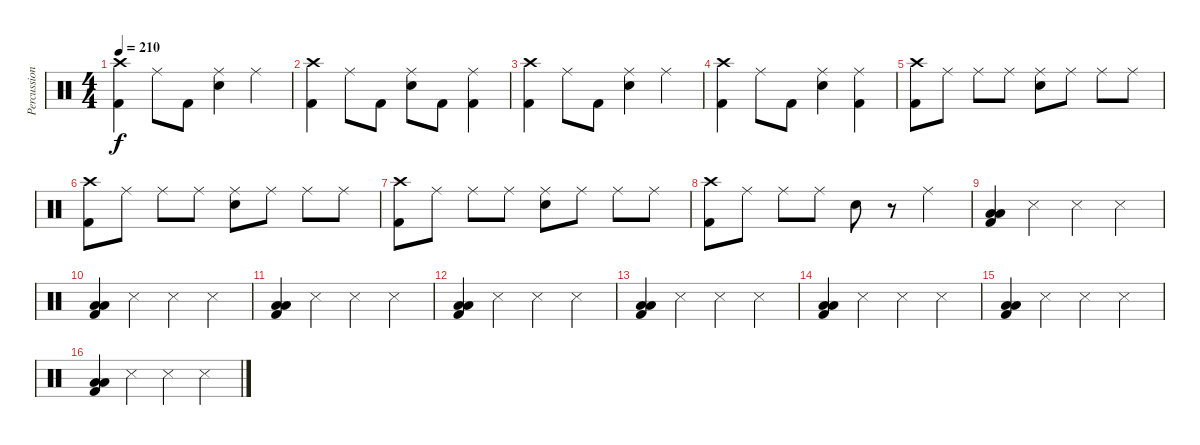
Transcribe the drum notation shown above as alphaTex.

\track ("Percussion" "Percussion") {instrument percussion}
\staff {score}
\articulation defaults
\ts (4 4)
\tempo 210
\clef neutral
\ks c
("Crash high (hit)" "Kick (hit) 2").4{dy f} "Ride (middle)".8 "Kick (hit) 2".8 ("Ride (middle)" "Electric Snare (hit)").4 "Ride (middle)".4 |
("Crash high (hit)" "Kick (hit) 2").4 "Ride (middle)".8 "Kick (hit) 2".8 ("Ride (middle)" "Electric Snare (hit)").8 "Kick (hit) 2".8 ("Ride (middle)" "Kick (hit) 2").4 |
("Crash high (hit)" "Kick (hit) 2").4 "Ride (middle)".8 "Kick (hit) 2".8 ("Ride (middle)" "Electric Snare (hit)").4 "Ride (middle)".4 |
("Crash high (hit)" "Kick (hit) 2").4 "Ride (middle)".8 "Kick (hit) 2".8 ("Ride (middle)" "Electric Snare (hit)").4 ("Ride (middle)" "Kick (hit) 2").4 |
("Crash high (hit)" "Kick (hit) 2").8 "Ride (middle)".8 "Ride (middle)".8 "Ride (middle)".8 ("Ride (middle)" "Electric Snare (hit)").8 "Ride (middle)".8 "Ride (middle)".8 "Ride (middle)".8 |
("Crash high (hit)" "Kick (hit) 2").8 "Ride (middle)".8 "Ride (middle)".8 "Ride (middle)".8 ("Ride (middle)" "Electric Snare (hit)").8 "Ride (middle)".8 "Ride (middle)".8 "Ride (middle)".8 |
("Crash high (hit)" "Kick (hit) 2").8 "Ride (middle)".8 "Ride (middle)".8 "Ride (middle)".8 ("Ride (middle)" "Electric Snare (hit)").8 "Ride (middle)".8 "Ride (middle)".8 "Ride (middle)".8 |
("Crash high (hit)" "Kick (hit) 2").8 "Ride (middle)".8 "Ride (middle)".8 "Ride (middle)".8 "Electric Snare (hit)".8 r.8 "Ride (middle)".4 |
("Low Floor Tom (hit)" "Low Tom (hit)" "Kick (hit) 2").4 "Snare (side stick) 3".4 "Snare (side stick) 3".4 "Snare (side stick) 3".4 |
("Low Floor Tom (hit)" "Low Tom (hit)" "Kick (hit) 2").4 "Snare (side stick) 3".4 "Snare (side stick) 3".4 "Snare (side stick) 3".4 |
("Low Floor Tom (hit)" "Low Tom (hit)" "Kick (hit) 2").4 "Snare (side stick) 3".4 "Snare (side stick) 3".4 "Snare (side stick) 3".4 |
("Low Floor Tom (hit)" "Low Tom (hit)" "Kick (hit) 2").4 "Snare (side stick) 3".4 "Snare (side stick) 3".4 "Snare (side stick) 3".4 |
("Low Floor Tom (hit)" "Low Tom (hit)" "Kick (hit) 2").4 "Snare (side stick) 3".4 "Snare (side stick) 3".4 "Snare (side stick) 3".4 |
("Low Floor Tom (hit)" "Low Tom (hit)" "Kick (hit) 2").4 "Snare (side stick) 3".4 "Snare (side stick) 3".4 "Snare (side stick) 3".4 |
("Low Floor Tom (hit)" "Low Tom (hit)" "Kick (hit) 2").4 "Snare (side stick) 3".4 "Snare (side stick) 3".4 "Snare (side stick) 3".4 |
("Low Floor Tom (hit)" "Low Tom (hit)" "Kick (hit) 2").4 "Snare (side stick) 3".4 "Snare (side stick) 3".4 "Snare (side stick) 3".4
